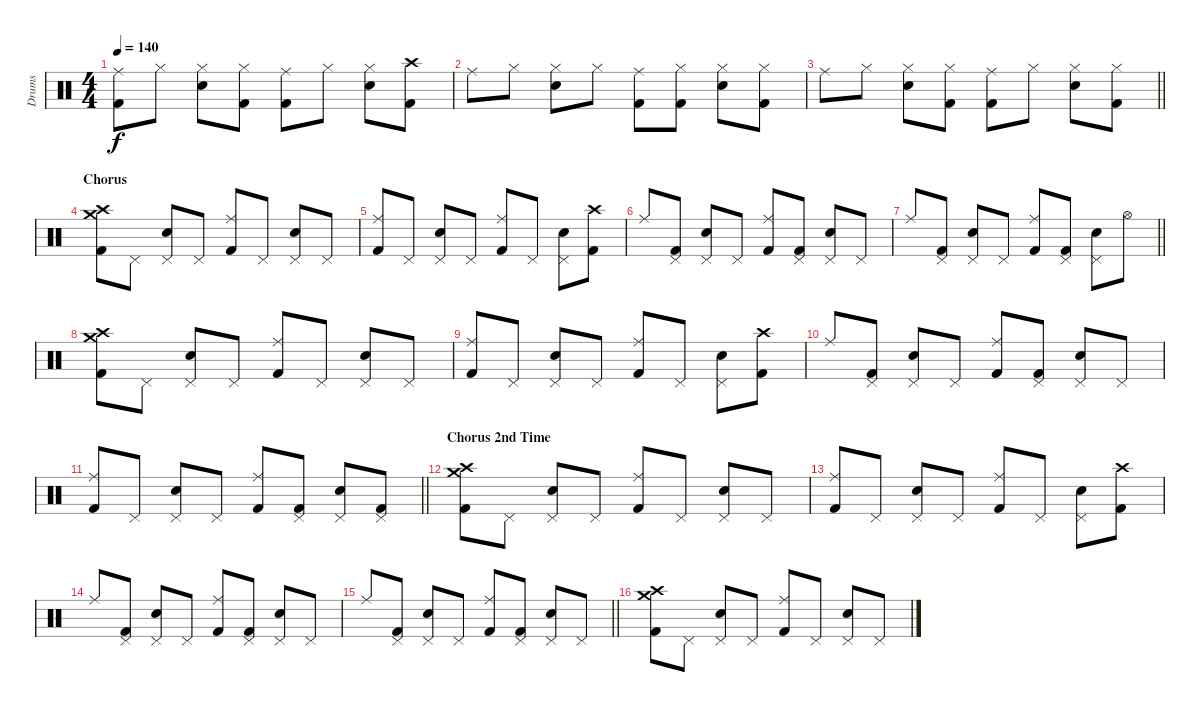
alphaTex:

\track ("Drums" "Drums") {instrument percussion}
\staff {score}
\articulation defaults
\ts (4 4)
\tempo 140
\clef neutral
\ks c
("Ride (middle)" "Kick (hit) 2").8{dy f} "Hi-Hat (closed)".8 ("Hi-Hat (closed)" "Snare (hit) 2").8 ("Hi-Hat (closed)" "Kick (hit) 2").8 ("Ride (middle)" "Kick (hit) 2").8 "Hi-Hat (closed)".8 ("Hi-Hat (closed)" "Snare (hit) 2").8 ("Crash high (hit)" "Kick (hit) 2").8 |
"Ride (middle)".8 "Hi-Hat (closed)".8 ("Hi-Hat (closed)" "Snare (hit) 2").8 "Hi-Hat (closed)".8 ("Ride (middle)" "Kick (hit) 2").8 ("Hi-Hat (closed)" "Kick (hit) 2").8 ("Hi-Hat (closed)" "Snare (hit) 2").8 ("Hi-Hat (closed)" "Kick (hit) 2").8 |
\barLineRight lightlight "Ride (middle)".8 "Hi-Hat (closed)".8
("Hi-Hat (closed)" "Snare (hit) 2").8 ("Hi-Hat (closed)" "Kick (hit) 2").8 ("Ride (middle)" "Kick (hit) 2").8 "Hi-Hat (closed)".8 ("Hi-Hat (closed)" "Snare (hit) 2").8 ("Hi-Hat (closed)" "Kick (hit) 2").8 |
\section ("" "Chorus")
("Crash medium (hit)" "Crash high (hit)" "Kick (hit) 2").8 "Pedal Hi-Hat (hit)".8 ("Pedal Hi-Hat (hit)" "Snare (hit) 2").8 "Pedal Hi-Hat (hit)".8 ("Ride (middle)" "Kick (hit) 2").8 "Pedal Hi-Hat (hit)".8 ("Pedal Hi-Hat (hit)" "Snare (hit) 2").8 "Pedal Hi-Hat (hit)".8 |
("Ride (middle)" "Kick (hit) 2").8 "Pedal Hi-Hat (hit)".8 ("Pedal Hi-Hat (hit)" "Snare (hit) 2").8 "Pedal Hi-Hat (hit)".8 ("Ride (middle)" "Kick (hit) 2").8 "Pedal Hi-Hat (hit)".8 ("Pedal Hi-Hat (hit)" "Snare (hit) 2").8 ("Crash high (hit)" "Kick (hit) 2").8 |
"Ride (middle)".8 ("Pedal Hi-Hat (hit)" "Kick (hit) 2").8 ("Pedal Hi-Hat (hit)" "Snare (hit) 2").8 "Pedal Hi-Hat (hit)".8 ("Ride (middle)" "Kick (hit) 2").8 ("Pedal Hi-Hat (hit)" "Kick (hit) 2").8 ("Pedal Hi-Hat (hit)" "Snare (hit) 2").8 "Pedal Hi-Hat (hit)".8 |
\barLineRight lightlight "Ride (middle)".8
("Pedal Hi-Hat (hit)" "Kick (hit) 2").8 ("Pedal Hi-Hat (hit)" "Snare (hit) 2").8 "Pedal Hi-Hat (hit)".8 ("Ride (middle)" "Kick (hit) 2").8 ("Pedal Hi-Hat (hit)" "Kick (hit) 2").8 ("Pedal Hi-Hat (hit)" "Snare (hit) 2").8 "Hi-Hat (open)".8 |
("Crash medium (hit)" "Crash high (hit)" "Kick (hit) 2").8 "Pedal Hi-Hat (hit)".8 ("Pedal Hi-Hat (hit)" "Snare (hit) 2").8 "Pedal Hi-Hat (hit)".8 ("Ride (middle)" "Kick (hit) 2").8 "Pedal Hi-Hat (hit)".8 ("Pedal Hi-Hat (hit)" "Snare (hit) 2").8 "Pedal Hi-Hat (hit)".8 |
("Ride (middle)" "Kick (hit) 2").8 "Pedal Hi-Hat (hit)".8 ("Pedal Hi-Hat (hit)" "Snare (hit) 2").8 "Pedal Hi-Hat (hit)".8 ("Ride (middle)" "Kick (hit) 2").8 "Pedal Hi-Hat (hit)".8 ("Pedal Hi-Hat (hit)" "Snare (hit) 2").8 ("Crash high (hit)" "Kick (hit) 2").8 |
"Ride (middle)".8 ("Pedal Hi-Hat (hit)" "Kick (hit) 2").8 ("Pedal Hi-Hat (hit)" "Snare (hit) 2").8 "Pedal Hi-Hat (hit)".8 ("Ride (middle)" "Kick (hit) 2").8 ("Pedal Hi-Hat (hit)" "Kick (hit) 2").8 ("Pedal Hi-Hat (hit)" "Snare (hit) 2").8 "Pedal Hi-Hat (hit)".8 |
\barLineRight lightlight
("Ride (middle)" "Kick (hit) 2").8 "Pedal Hi-Hat (hit)".8 ("Pedal Hi-Hat (hit)" "Snare (hit) 2").8 "Pedal Hi-Hat (hit)".8 ("Ride (middle)" "Kick (hit) 2").8 ("Pedal Hi-Hat (hit)" "Kick (hit) 2").8 ("Pedal Hi-Hat (hit)" "Snare (hit) 2").8 ("Pedal Hi-Hat (hit)" "Kick (hit) 2").8 |
\section ("" "Chorus 2nd Time")
("Crash medium (hit)" "Crash high (hit)" "Kick (hit) 2").8 "Pedal Hi-Hat (hit)".8 ("Pedal Hi-Hat (hit)" "Snare (hit) 2").8 "Pedal Hi-Hat (hit)".8 ("Ride (middle)" "Kick (hit) 2").8 "Pedal Hi-Hat (hit)".8 ("Pedal Hi-Hat (hit)" "Snare (hit) 2").8 "Pedal Hi-Hat (hit)".8 |
("Ride (middle)" "Kick (hit) 2").8 "Pedal Hi-Hat (hit)".8 ("Pedal Hi-Hat (hit)" "Snare (hit) 2").8 "Pedal Hi-Hat (hit)".8 ("Ride (middle)" "Kick (hit) 2").8 "Pedal Hi-Hat (hit)".8 ("Pedal Hi-Hat (hit)" "Snare (hit) 2").8 ("Crash high (hit)" "Kick (hit) 2").8 |
"Ride (middle)".8 ("Pedal Hi-Hat (hit)" "Kick (hit) 2").8 ("Pedal Hi-Hat (hit)" "Snare (hit) 2").8 "Pedal Hi-Hat (hit)".8 ("Ride (middle)" "Kick (hit) 2").8 ("Pedal Hi-Hat (hit)" "Kick (hit) 2").8 ("Pedal Hi-Hat (hit)" "Snare (hit) 2").8 "Pedal Hi-Hat (hit)".8 |
\barLineRight lightlight "Ride (middle)".8
("Pedal Hi-Hat (hit)" "Kick (hit) 2").8 ("Pedal Hi-Hat (hit)" "Snare (hit) 2").8 "Pedal Hi-Hat (hit)".8 ("Ride (middle)" "Kick (hit) 2").8 ("Pedal Hi-Hat (hit)" "Kick (hit) 2").8 ("Pedal Hi-Hat (hit)" "Snare (hit) 2").8 "Pedal Hi-Hat (hit)".8 |
("Crash medium (hit)" "Crash high (hit)" "Kick (hit) 2").8 "Pedal Hi-Hat (hit)".8 ("Pedal Hi-Hat (hit)" "Snare (hit) 2").8 "Pedal Hi-Hat (hit)".8 ("Ride (middle)" "Kick (hit) 2").8 "Pedal Hi-Hat (hit)".8 ("Pedal Hi-Hat (hit)" "Snare (hit) 2").8 "Pedal Hi-Hat (hit)".8
